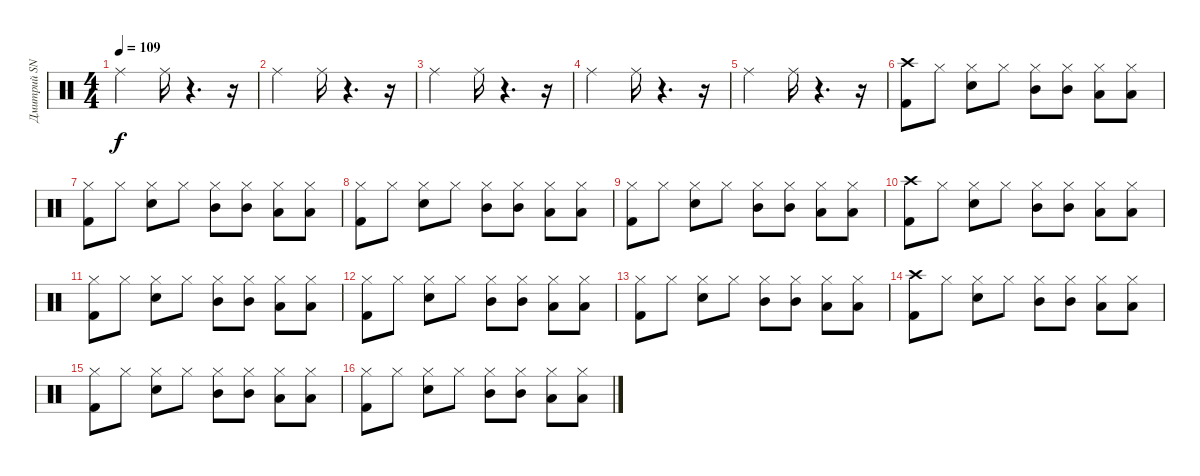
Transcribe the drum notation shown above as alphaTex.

\track ("Дмитрий SNAKE Хакимов" "Дмитрий SN") {instrument percussion}
\staff {score}
\articulation defaults
\ts (4 4)
\tempo 109
\clef neutral
\ks c "Ride (middle)".2{dy f} "Ride (middle)".16
r.4{d} r.16 |
"Ride (middle)".2 "Ride (middle)".16 r.4{d} r.16 |
"Ride (middle)".2 "Ride (middle)".16 r.4{d} r.16 |
"Ride (middle)".2 "Ride (middle)".16 r.4{d} r.16 |
"Ride (middle)".2 "Ride (middle)".16 r.4{d} r.16 |
("Crash high (hit)" "Kick (hit) 2").8 "Hi-Hat (closed)".8 ("Hi-Hat (closed)" "Snare (hit) 2").8 "Hi-Hat (closed)".8 ("Hi-Hat (closed)" "Mid Tom (hit)").8 ("Hi-Hat (closed)" "Mid Tom (hit)").8 ("Hi-Hat (closed)" "Low Tom (hit)").8 ("Hi-Hat (closed)" "Low Tom (hit)").8 |
("Hi-Hat (closed)" "Kick (hit) 2").8 "Hi-Hat (closed)".8 ("Hi-Hat (closed)" "Snare (hit) 2").8 "Hi-Hat (closed)".8 ("Hi-Hat (closed)" "Mid Tom (hit)").8 ("Hi-Hat (closed)" "Mid Tom (hit)").8 ("Hi-Hat (closed)" "Low Tom (hit)").8 ("Hi-Hat (closed)" "Low Tom (hit)").8 |
("Hi-Hat (closed)" "Kick (hit) 2").8 "Hi-Hat (closed)".8 ("Hi-Hat (closed)" "Snare (hit) 2").8 "Hi-Hat (closed)".8 ("Hi-Hat (closed)" "Mid Tom (hit)").8 ("Hi-Hat (closed)" "Mid Tom (hit)").8 ("Hi-Hat (closed)" "Low Tom (hit)").8 ("Hi-Hat (closed)" "Low Tom (hit)").8 |
("Hi-Hat (closed)" "Kick (hit) 2").8 "Hi-Hat (closed)".8 ("Hi-Hat (closed)" "Snare (hit) 2").8 "Hi-Hat (closed)".8 ("Hi-Hat (closed)" "Mid Tom (hit)").8 ("Hi-Hat (closed)" "Mid Tom (hit)").8 ("Hi-Hat (closed)" "Low Tom (hit)").8 ("Hi-Hat (closed)" "Low Tom (hit)").8 |
("Crash high (hit)" "Kick (hit) 2").8 "Hi-Hat (closed)".8 ("Hi-Hat (closed)" "Snare (hit) 2").8 "Hi-Hat (closed)".8 ("Hi-Hat (closed)" "Mid Tom (hit)").8 ("Hi-Hat (closed)" "Mid Tom (hit)").8 ("Hi-Hat (closed)" "Low Tom (hit)").8 ("Hi-Hat (closed)" "Low Tom (hit)").8 |
("Hi-Hat (closed)" "Kick (hit) 2").8 "Hi-Hat (closed)".8 ("Hi-Hat (closed)" "Snare (hit) 2").8 "Hi-Hat (closed)".8 ("Hi-Hat (closed)" "Mid Tom (hit)").8 ("Hi-Hat (closed)" "Mid Tom (hit)").8 ("Hi-Hat (closed)" "Low Tom (hit)").8 ("Hi-Hat (closed)" "Low Tom (hit)").8 |
("Hi-Hat (closed)" "Kick (hit) 2").8 "Hi-Hat (closed)".8 ("Hi-Hat (closed)" "Snare (hit) 2").8 "Hi-Hat (closed)".8 ("Hi-Hat (closed)" "Mid Tom (hit)").8 ("Hi-Hat (closed)" "Mid Tom (hit)").8 ("Hi-Hat (closed)" "Low Tom (hit)").8 ("Hi-Hat (closed)" "Low Tom (hit)").8 |
("Hi-Hat (closed)" "Kick (hit) 2").8 "Hi-Hat (closed)".8 ("Hi-Hat (closed)" "Snare (hit) 2").8 "Hi-Hat (closed)".8 ("Hi-Hat (closed)" "Mid Tom (hit)").8 ("Hi-Hat (closed)" "Mid Tom (hit)").8 ("Hi-Hat (closed)" "Low Tom (hit)").8 ("Hi-Hat (closed)" "Low Tom (hit)").8 |
("Crash high (hit)" "Kick (hit) 2").8 "Hi-Hat (closed)".8 ("Hi-Hat (closed)" "Snare (hit) 2").8 "Hi-Hat (closed)".8 ("Hi-Hat (closed)" "Mid Tom (hit)").8 ("Hi-Hat (closed)" "Mid Tom (hit)").8 ("Hi-Hat (closed)" "Low Tom (hit)").8 ("Hi-Hat (closed)" "Low Tom (hit)").8 |
("Hi-Hat (closed)" "Kick (hit) 2").8 "Hi-Hat (closed)".8 ("Hi-Hat (closed)" "Snare (hit) 2").8 "Hi-Hat (closed)".8 ("Hi-Hat (closed)" "Mid Tom (hit)").8 ("Hi-Hat (closed)" "Mid Tom (hit)").8 ("Hi-Hat (closed)" "Low Tom (hit)").8 ("Hi-Hat (closed)" "Low Tom (hit)").8 |
("Hi-Hat (closed)" "Kick (hit) 2").8 "Hi-Hat (closed)".8 ("Hi-Hat (closed)" "Snare (hit) 2").8 "Hi-Hat (closed)".8 ("Hi-Hat (closed)" "Mid Tom (hit)").8 ("Hi-Hat (closed)" "Mid Tom (hit)").8 ("Hi-Hat (closed)" "Low Tom (hit)").8 ("Hi-Hat (closed)" "Low Tom (hit)").8
